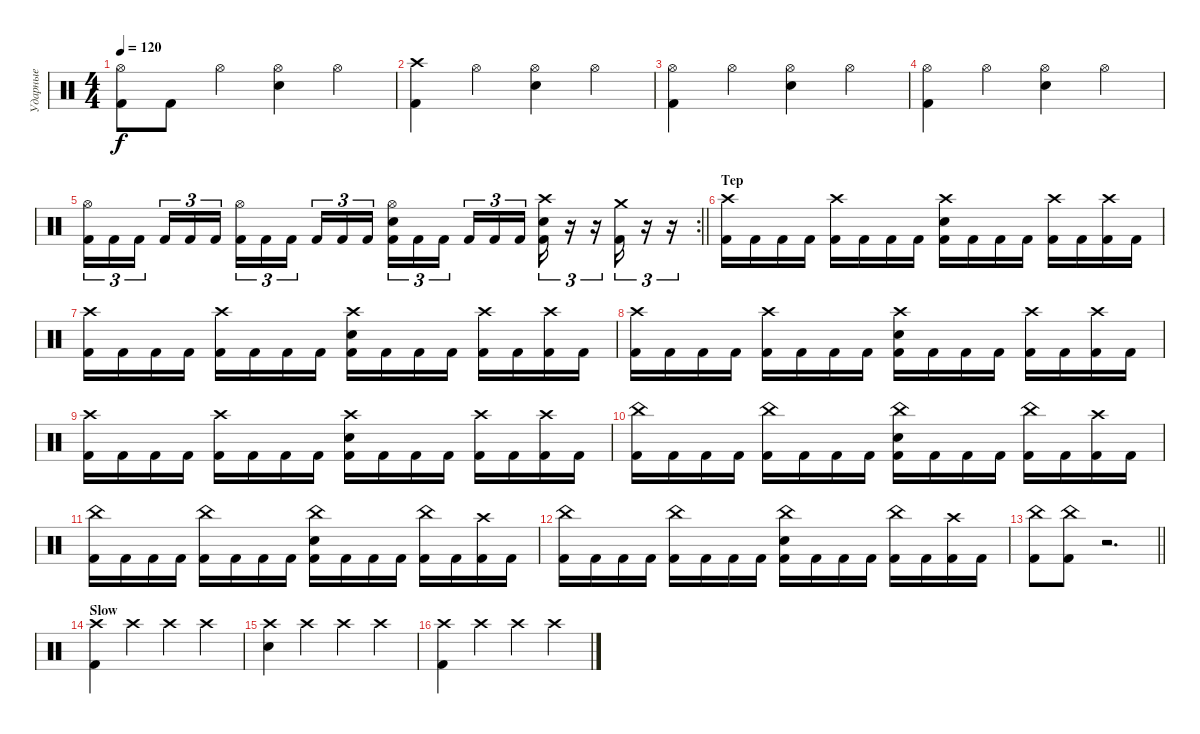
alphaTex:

\track ("Ударные" "Ударные") {instrument percussion}
\staff {score}
\articulation defaults
\ts (4 4)
\tempo 120
\clef neutral
\ks c
("Hi-Hat (open)" "Kick (hit) 2").8{dy f} "Kick (hit) 2".8 "Hi-Hat (open)".4 ("Hi-Hat (open)" "Snare (hit) 2").4 "Hi-Hat (open)".4 |
("Crash high (hit)" "Kick (hit) 2").4 "Hi-Hat (open)".4 ("Hi-Hat (open)" "Snare (hit) 2").4 "Hi-Hat (open)".4 |
("Hi-Hat (open)" "Kick (hit) 2").4 "Hi-Hat (open)".4 ("Hi-Hat (open)" "Snare (hit) 2").4 "Hi-Hat (open)".4 |
("Hi-Hat (open)" "Kick (hit) 2").4 "Hi-Hat (open)".4 ("Hi-Hat (open)" "Snare (hit) 2").4 "Hi-Hat (open)".4 |
\rc 2
\barLineRight lightlight
("Hi-Hat (open)" "Kick (hit) 2").16{tu (3 2)} "Kick (hit) 2".16{tu (3 2)} "Kick (hit) 2".16{tu (3 2) beam splitsecondary} "Kick (hit) 2".16{tu (3 2)} "Kick (hit) 2".16{tu (3 2)} "Kick (hit) 2".16{tu (3 2)} ("Hi-Hat (open)" "Kick (hit) 2").16{tu (3 2)} "Kick (hit) 2".16{tu (3 2)} "Kick (hit) 2".16{tu (3 2) beam splitsecondary} "Kick (hit) 2".16{tu (3 2)} "Kick (hit) 2".16{tu (3 2)} "Kick (hit) 2".16{tu (3 2)} ("Hi-Hat (open)" "Snare (hit) 2" "Kick (hit) 2").16{tu (3 2)} "Kick (hit) 2".16{tu (3 2)} "Kick (hit) 2".16{tu (3 2) beam splitsecondary} "Kick (hit) 2".16{tu (3 2)} "Kick (hit) 2".16{tu (3 2)} "Kick (hit) 2".16{tu (3 2)} ("Crash high (hit)" "Snare (hit) 2" "Kick (hit) 2").16{tu (3 2)} r.16{tu (3 2)} r.16{tu (3 2)} ("Crash medium (hit)" "Kick (hit) 2").16{tu (3 2)} r.16{tu (3 2)} r.16{tu (3 2)} |
\section ("" "Tep")
("Crash high (hit)" "Kick (hit) 2").16 "Kick (hit) 2".16 "Kick (hit) 2".16 "Kick (hit) 2".16 ("Crash high (hit)" "Kick (hit) 2").16 "Kick (hit) 2".16 "Kick (hit) 2".16 "Kick (hit) 2".16 ("Crash high (hit)" "Snare (hit) 2" "Kick (hit) 2").16 "Kick (hit) 2".16 "Kick (hit) 2".16 "Kick (hit) 2".16 ("Crash high (hit)" "Kick (hit) 2").16 "Kick (hit) 2".16 ("Crash high (hit)" "Kick (hit) 2").16 "Kick (hit) 2".16 |
("Crash high (hit)" "Kick (hit) 2").16 "Kick (hit) 2".16 "Kick (hit) 2".16 "Kick (hit) 2".16 ("Crash high (hit)" "Kick (hit) 2").16 "Kick (hit) 2".16 "Kick (hit) 2".16 "Kick (hit) 2".16 ("Crash high (hit)" "Snare (hit) 2" "Kick (hit) 2").16 "Kick (hit) 2".16 "Kick (hit) 2".16 "Kick (hit) 2".16 ("Crash high (hit)" "Kick (hit) 2").16 "Kick (hit) 2".16 ("Crash high (hit)" "Kick (hit) 2").16 "Kick (hit) 2".16 |
("Crash high (hit)" "Kick (hit) 2").16 "Kick (hit) 2".16 "Kick (hit) 2".16 "Kick (hit) 2".16 ("Crash high (hit)" "Kick (hit) 2").16 "Kick (hit) 2".16 "Kick (hit) 2".16 "Kick (hit) 2".16 ("Crash high (hit)" "Snare (hit) 2" "Kick (hit) 2").16 "Kick (hit) 2".16 "Kick (hit) 2".16 "Kick (hit) 2".16 ("Crash high (hit)" "Kick (hit) 2").16 "Kick (hit) 2".16 ("Crash high (hit)" "Kick (hit) 2").16 "Kick (hit) 2".16 |
("Crash high (hit)" "Kick (hit) 2").16 "Kick (hit) 2".16 "Kick (hit) 2".16 "Kick (hit) 2".16 ("Crash high (hit)" "Kick (hit) 2").16 "Kick (hit) 2".16 "Kick (hit) 2".16 "Kick (hit) 2".16 ("Crash high (hit)" "Snare (hit) 2" "Kick (hit) 2").16 "Kick (hit) 2".16 "Kick (hit) 2".16 "Kick (hit) 2".16 ("Crash high (hit)" "Kick (hit) 2").16 "Kick (hit) 2".16 ("Crash high (hit)" "Kick (hit) 2").16 "Kick (hit) 2".16 |
("China (hit)" "Kick (hit) 2").16 "Kick (hit) 2".16 "Kick (hit) 2".16 "Kick (hit) 2".16 ("China (hit)" "Kick (hit) 2").16 "Kick (hit) 2".16 "Kick (hit) 2".16 "Kick (hit) 2".16 ("China (hit)" "Snare (hit) 2" "Kick (hit) 2").16 "Kick (hit) 2".16 "Kick (hit) 2".16 "Kick (hit) 2".16 ("China (hit)" "Kick (hit) 2").16 "Kick (hit) 2".16 ("Crash high (hit)" "Kick (hit) 2").16 "Kick (hit) 2".16 |
("China (hit)" "Kick (hit) 2").16 "Kick (hit) 2".16 "Kick (hit) 2".16 "Kick (hit) 2".16 ("China (hit)" "Kick (hit) 2").16 "Kick (hit) 2".16 "Kick (hit) 2".16 "Kick (hit) 2".16 ("China (hit)" "Snare (hit) 2" "Kick (hit) 2").16 "Kick (hit) 2".16 "Kick (hit) 2".16 "Kick (hit) 2".16 ("China (hit)" "Kick (hit) 2").16 "Kick (hit) 2".16 ("Crash high (hit)" "Kick (hit) 2").16 "Kick (hit) 2".16 |
("China (hit)" "Kick (hit) 2").16 "Kick (hit) 2".16 "Kick (hit) 2".16 "Kick (hit) 2".16 ("China (hit)" "Kick (hit) 2").16 "Kick (hit) 2".16 "Kick (hit) 2".16 "Kick (hit) 2".16 ("China (hit)" "Snare (hit) 2" "Kick (hit) 2").16 "Kick (hit) 2".16 "Kick (hit) 2".16 "Kick (hit) 2".16 ("China (hit)" "Kick (hit) 2").16 "Kick (hit) 2".16 ("Crash high (hit)" "Kick (hit) 2").16 "Kick (hit) 2".16 |
\barLineRight lightlight
("China (hit)" "Kick (hit) 2").8 ("China (hit)" "Kick (hit) 2").8 r.2{d} |
\section ("" "Slow")
("Crash high (hit)" "Kick (hit) 2").4 "Crash high (hit)".4 "Crash high (hit)".4 "Crash high (hit)".4 |
("Crash high (hit)" "Snare (hit) 2").4 "Crash high (hit)".4 "Crash high (hit)".4 "Crash high (hit)".4 |
("Crash high (hit)" "Kick (hit) 2").4 "Crash high (hit)".4 "Crash high (hit)".4 "Crash high (hit)".4
